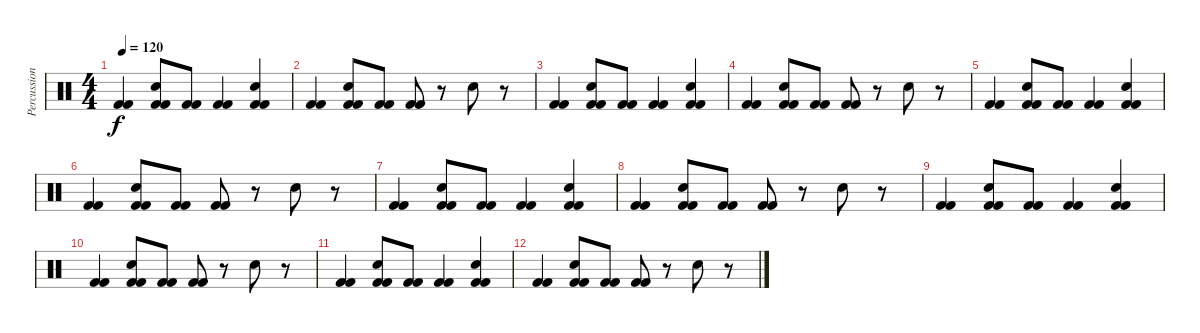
\track ("Percussion" "Percussion") {instrument percussion}
\staff {score}
\articulation defaults
\ts (4 4)
\tempo 120
\clef neutral
\ks c
("Kick (hit) 2" "Kick (hit) 2").4{dy f} ("Hand Clap (hit)" "Kick (hit) 2" "Kick (hit) 2").8 ("Kick (hit) 2" "Kick (hit) 2").8 ("Kick (hit) 2" "Kick (hit) 2").4 ("Kick (hit) 2" "Hand Clap (hit)" "Kick (hit) 2").4 |
("Kick (hit) 2" "Kick (hit) 2").4 ("Kick (hit) 2" "Hand Clap (hit)" "Kick (hit) 2").8 ("Kick (hit) 2" "Kick (hit) 2").8 ("Kick (hit) 2" "Kick (hit) 2").8 r.8 "Hand Clap (hit)".8 r.8 |
("Kick (hit) 2" "Kick (hit) 2").4 ("Hand Clap (hit)" "Kick (hit) 2" "Kick (hit) 2").8 ("Kick (hit) 2" "Kick (hit) 2").8 ("Kick (hit) 2" "Kick (hit) 2").4 ("Kick (hit) 2" "Hand Clap (hit)" "Kick (hit) 2").4 |
("Kick (hit) 2" "Kick (hit) 2").4 ("Kick (hit) 2" "Hand Clap (hit)" "Kick (hit) 2").8 ("Kick (hit) 2" "Kick (hit) 2").8 ("Kick (hit) 2" "Kick (hit) 2").8 r.8 "Hand Clap (hit)".8 r.8 |
("Kick (hit) 2" "Kick (hit) 2").4 ("Hand Clap (hit)" "Kick (hit) 2" "Kick (hit) 2").8 ("Kick (hit) 2" "Kick (hit) 2").8 ("Kick (hit) 2" "Kick (hit) 2").4 ("Kick (hit) 2" "Hand Clap (hit)" "Kick (hit) 2").4 |
("Kick (hit) 2" "Kick (hit) 2").4 ("Kick (hit) 2" "Hand Clap (hit)" "Kick (hit) 2").8 ("Kick (hit) 2" "Kick (hit) 2").8 ("Kick (hit) 2" "Kick (hit) 2").8 r.8 "Hand Clap (hit)".8 r.8 |
("Kick (hit) 2" "Kick (hit) 2").4 ("Hand Clap (hit)" "Kick (hit) 2" "Kick (hit) 2").8 ("Kick (hit) 2" "Kick (hit) 2").8 ("Kick (hit) 2" "Kick (hit) 2").4 ("Kick (hit) 2" "Hand Clap (hit)" "Kick (hit) 2").4 |
("Kick (hit) 2" "Kick (hit) 2").4 ("Kick (hit) 2" "Hand Clap (hit)" "Kick (hit) 2").8 ("Kick (hit) 2" "Kick (hit) 2").8 ("Kick (hit) 2" "Kick (hit) 2").8 r.8 "Hand Clap (hit)".8 r.8 |
("Kick (hit) 2" "Kick (hit) 2").4 ("Hand Clap (hit)" "Kick (hit) 2" "Kick (hit) 2").8 ("Kick (hit) 2" "Kick (hit) 2").8 ("Kick (hit) 2" "Kick (hit) 2").4 ("Kick (hit) 2" "Hand Clap (hit)" "Kick (hit) 2").4 |
("Kick (hit) 2" "Kick (hit) 2").4 ("Kick (hit) 2" "Hand Clap (hit)" "Kick (hit) 2").8 ("Kick (hit) 2" "Kick (hit) 2").8 ("Kick (hit) 2" "Kick (hit) 2").8 r.8 "Hand Clap (hit)".8 r.8 |
("Kick (hit) 2" "Kick (hit) 2").4 ("Hand Clap (hit)" "Kick (hit) 2" "Kick (hit) 2").8 ("Kick (hit) 2" "Kick (hit) 2").8 ("Kick (hit) 2" "Kick (hit) 2").4 ("Kick (hit) 2" "Hand Clap (hit)" "Kick (hit) 2").4 |
("Kick (hit) 2" "Kick (hit) 2").4 ("Kick (hit) 2" "Hand Clap (hit)" "Kick (hit) 2").8 ("Kick (hit) 2" "Kick (hit) 2").8 ("Kick (hit) 2" "Kick (hit) 2").8 r.8 "Hand Clap (hit)".8 r.8
